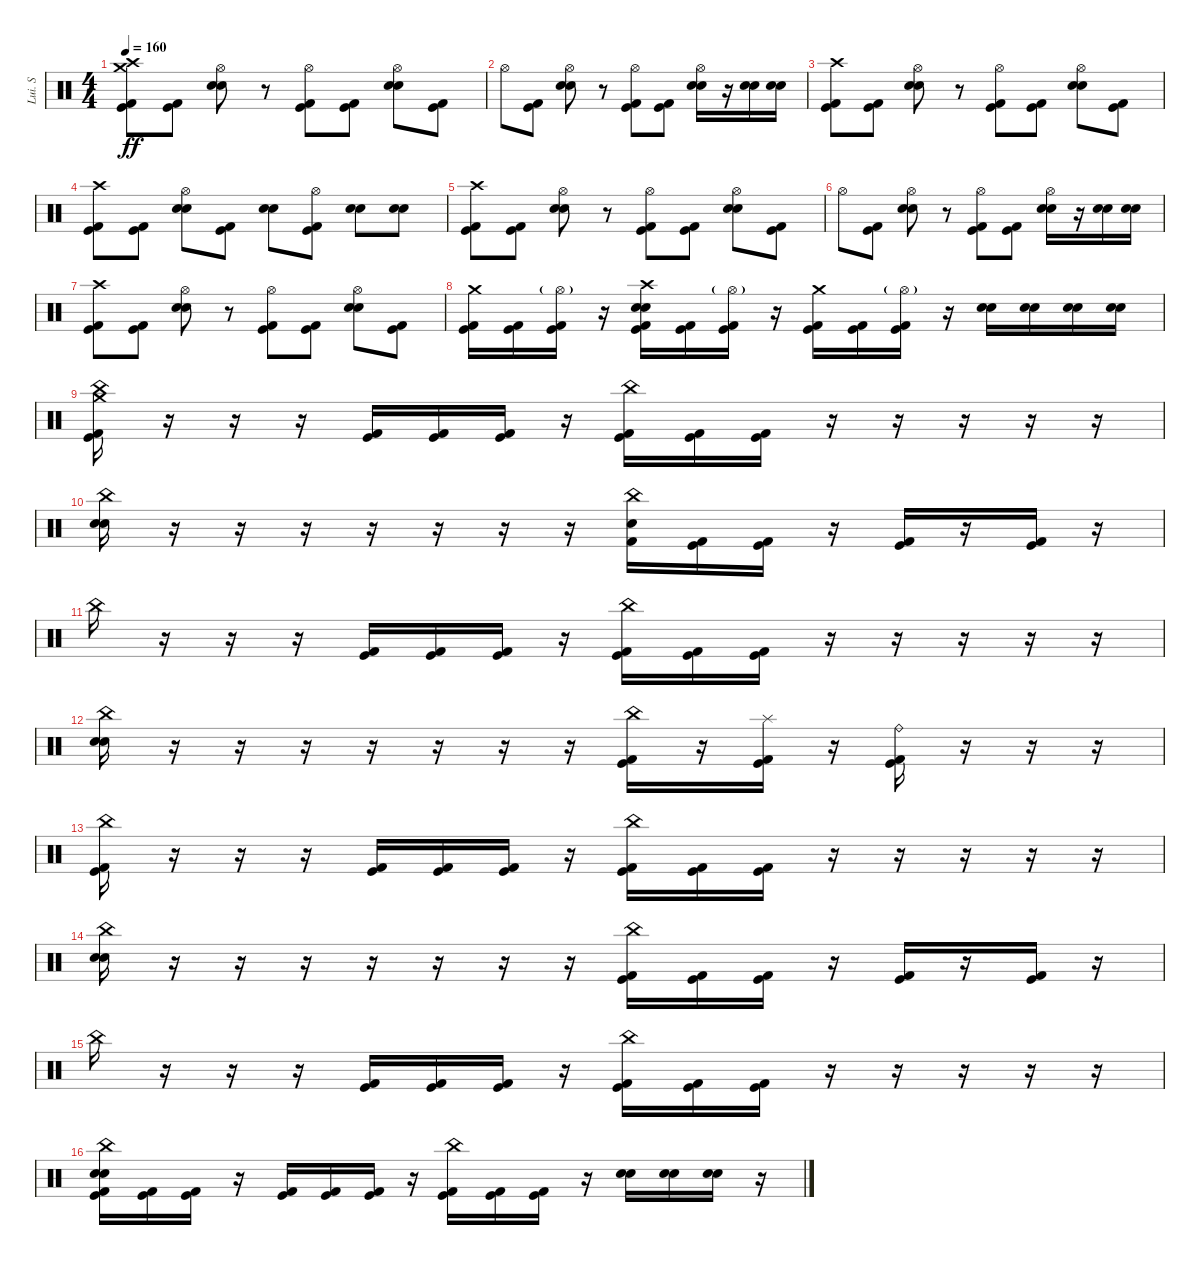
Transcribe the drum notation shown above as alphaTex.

\track ("Lui. S" "Lui. S") {instrument percussion}
\staff {score}
\articulation defaults
\ts (4 4)
\tempo 160
\clef neutral
\ks c
("Crash high (hit)" "Crash medium (hit)" "Kick (hit)" "Kick (hit) 2").8{dy ff} ("Kick (hit)" "Kick (hit) 2").8 ("Hi-Hat (open)" "Snare (hit) 2" "Electric Snare (hit)").8 r.8 ("Hi-Hat (open)" "Kick (hit)" "Kick (hit) 2").8 ("Kick (hit)" "Kick (hit) 2").8 ("Hi-Hat (open)" "Snare (hit) 2" "Electric Snare (hit)").8 ("Kick (hit)" "Kick (hit) 2").8 |
"Hi-Hat (open)".8 ("Kick (hit)" "Kick (hit) 2").8 ("Hi-Hat (open)" "Snare (hit) 2" "Electric Snare (hit)").8 r.8 ("Hi-Hat (open)" "Kick (hit)" "Kick (hit) 2").8 ("Kick (hit)" "Kick (hit) 2").8 ("Hi-Hat (open)" "Snare (hit) 2" "Electric Snare (hit)").16 r.16 ("Snare (hit) 2" "Electric Snare (hit)").16 ("Snare (hit) 2" "Electric Snare (hit)").16 |
("Crash high (hit)" "Kick (hit)" "Kick (hit) 2").8 ("Kick (hit)" "Kick (hit) 2").8 ("Hi-Hat (open)" "Snare (hit) 2" "Electric Snare (hit)").8 r.8 ("Hi-Hat (open)" "Kick (hit)" "Kick (hit) 2").8 ("Kick (hit)" "Kick (hit) 2").8 ("Hi-Hat (open)" "Snare (hit) 2" "Electric Snare (hit)").8 ("Kick (hit)" "Kick (hit) 2").8 |
("Crash high (hit)" "Kick (hit)" "Kick (hit) 2").8 ("Kick (hit)" "Kick (hit) 2").8 ("Hi-Hat (open)" "Snare (hit) 2" "Electric Snare (hit)").8 ("Kick (hit) 2" "Kick (hit)").8 ("Snare (hit) 2" "Electric Snare (hit)").8 ("Hi-Hat (open)" "Kick (hit)" "Kick (hit) 2").8 ("Snare (hit) 2" "Electric Snare (hit)").8 ("Snare (hit) 2" "Electric Snare (hit)").8 |
("Crash high (hit)" "Kick (hit)" "Kick (hit) 2").8 ("Kick (hit)" "Kick (hit) 2").8 ("Hi-Hat (open)" "Snare (hit) 2" "Electric Snare (hit)").8 r.8 ("Hi-Hat (open)" "Kick (hit)" "Kick (hit) 2").8 ("Kick (hit)" "Kick (hit) 2").8 ("Hi-Hat (open)" "Snare (hit) 2" "Electric Snare (hit)").8 ("Kick (hit)" "Kick (hit) 2").8 |
"Hi-Hat (open)".8 ("Kick (hit)" "Kick (hit) 2").8 ("Hi-Hat (open)" "Snare (hit) 2" "Electric Snare (hit)").8 r.8 ("Hi-Hat (open)" "Kick (hit)" "Kick (hit) 2").8 ("Kick (hit)" "Kick (hit) 2").8 ("Hi-Hat (open)" "Snare (hit) 2" "Electric Snare (hit)").16 r.16 ("Snare (hit) 2" "Electric Snare (hit)").16 ("Snare (hit) 2" "Electric Snare (hit)").16 |
("Crash high (hit)" "Kick (hit)" "Kick (hit) 2").8 ("Kick (hit)" "Kick (hit) 2").8 ("Hi-Hat (open)" "Snare (hit) 2" "Electric Snare (hit)").8 r.8 ("Hi-Hat (open)" "Kick (hit)" "Kick (hit) 2").8 ("Kick (hit)" "Kick (hit) 2").8 ("Hi-Hat (open)" "Snare (hit) 2" "Electric Snare (hit)").8 ("Kick (hit)" "Kick (hit) 2").8 |
("Crash medium (hit)" "Kick (hit)" "Kick (hit) 2").16 ("Kick (hit)" "Kick (hit) 2").16 ("Hi-Hat (open)"{g} "Kick (hit)" "Kick (hit) 2").16 r.16 ("Crash high (hit)" "Electric Snare (hit)" "Snare (hit) 2" "Kick (hit)" "Kick (hit) 2").16 ("Kick (hit)" "Kick (hit) 2").16 ("Hi-Hat (open)"{g} "Kick (hit)" "Kick (hit) 2").16 r.16 ("Crash medium (hit)" "Kick (hit)" "Kick (hit) 2").16 ("Kick (hit)" "Kick (hit) 2").16 ("Hi-Hat (open)"{g} "Kick (hit)" "Kick (hit) 2").16 r.16 ("Electric Snare (hit)" "Snare (hit) 2").16 ("Electric Snare (hit)" "Snare (hit) 2").16 ("Electric Snare (hit)" "Snare (hit) 2").16 ("Electric Snare (hit)" "Snare (hit) 2").16 |
("China (hit)" "Crash medium (hit)" "Kick (hit)" "Kick (hit) 2").16 r.16 r.16 r.16 ("Kick (hit)" "Kick (hit) 2").16 ("Kick (hit)" "Kick (hit) 2").16 ("Kick (hit)" "Kick (hit) 2").16 r.16 ("China (hit)" "Kick (hit)" "Kick (hit) 2").16 ("Kick (hit)" "Kick (hit) 2").16 ("Kick (hit)" "Kick (hit) 2").16 r.16 r.16 r.16 r.16 r.16 |
("China (hit)" "Electric Snare (hit)" "Snare (hit) 2").16 r.16 r.16 r.16 r.16 r.16 r.16 r.16 ("China (hit)" "Snare (hit) 2" "Kick (hit) 2").16 ("Kick (hit) 2" "Kick (hit)").16 ("Kick (hit) 2" "Kick (hit)").16 r.16 ("Kick (hit)" "Kick (hit) 2").16 r.16 ("Kick (hit)" "Kick (hit) 2").16 r.16 |
"China (hit)".16 r.16 r.16 r.16 ("Kick (hit)" "Kick (hit) 2").16 ("Kick (hit)" "Kick (hit) 2").16 ("Kick (hit)" "Kick (hit) 2").16 r.16 ("China (hit)" "Kick (hit)" "Kick (hit) 2").16 ("Kick (hit)" "Kick (hit) 2").16 ("Kick (hit)" "Kick (hit) 2").16 r.16 r.16 r.16 r.16 r.16 |
("China (hit)" "Snare (hit) 2" "Electric Snare (hit)").16 r.16 r.16 r.16 r.16 r.16 r.16 r.16 ("China (hit)" "Kick (hit)" "Kick (hit) 2").16 r.16 ("Splash (hit)" "Kick (hit)" "Kick (hit) 2").16 r.16 ("Ride (bell)" "Kick (hit)" "Kick (hit) 2").16 r.16 r.16 r.16 |
("China (hit)" "Kick (hit)" "Kick (hit) 2").16 r.16 r.16 r.16 ("Kick (hit)" "Kick (hit) 2").16 ("Kick (hit)" "Kick (hit) 2").16 ("Kick (hit)" "Kick (hit) 2").16 r.16 ("China (hit)" "Kick (hit)" "Kick (hit) 2").16 ("Kick (hit)" "Kick (hit) 2").16 ("Kick (hit)" "Kick (hit) 2").16 r.16 r.16 r.16 r.16 r.16 |
("China (hit)" "Electric Snare (hit)" "Snare (hit) 2").16 r.16 r.16 r.16 r.16 r.16 r.16 r.16 ("China (hit)" "Kick (hit)" "Kick (hit) 2").16 ("Kick (hit) 2" "Kick (hit)").16 ("Kick (hit) 2" "Kick (hit)").16 r.16 ("Kick (hit)" "Kick (hit) 2").16 r.16 ("Kick (hit)" "Kick (hit) 2").16 r.16 |
"China (hit)".16 r.16 r.16 r.16 ("Kick (hit)" "Kick (hit) 2").16 ("Kick (hit)" "Kick (hit) 2").16 ("Kick (hit)" "Kick (hit) 2").16 r.16 ("China (hit)" "Kick (hit)" "Kick (hit) 2").16 ("Kick (hit)" "Kick (hit) 2").16 ("Kick (hit)" "Kick (hit) 2").16 r.16 r.16 r.16 r.16 r.16 |
("China (hit)" "Electric Snare (hit)" "Snare (hit) 2" "Kick (hit)" "Kick (hit) 2").16 ("Kick (hit)" "Kick (hit) 2").16 ("Kick (hit)" "Kick (hit) 2").16 r.16 ("Kick (hit)" "Kick (hit) 2").16 ("Kick (hit)" "Kick (hit) 2").16 ("Kick (hit)" "Kick (hit) 2").16 r.16 ("China (hit)" "Kick (hit)" "Kick (hit) 2").16 ("Kick (hit)" "Kick (hit) 2").16 ("Kick (hit)" "Kick (hit) 2").16 r.16 ("Electric Snare (hit)" "Snare (hit) 2").16 ("Electric Snare (hit)" "Snare (hit) 2").16 ("Electric Snare (hit)" "Snare (hit) 2").16 r.16
